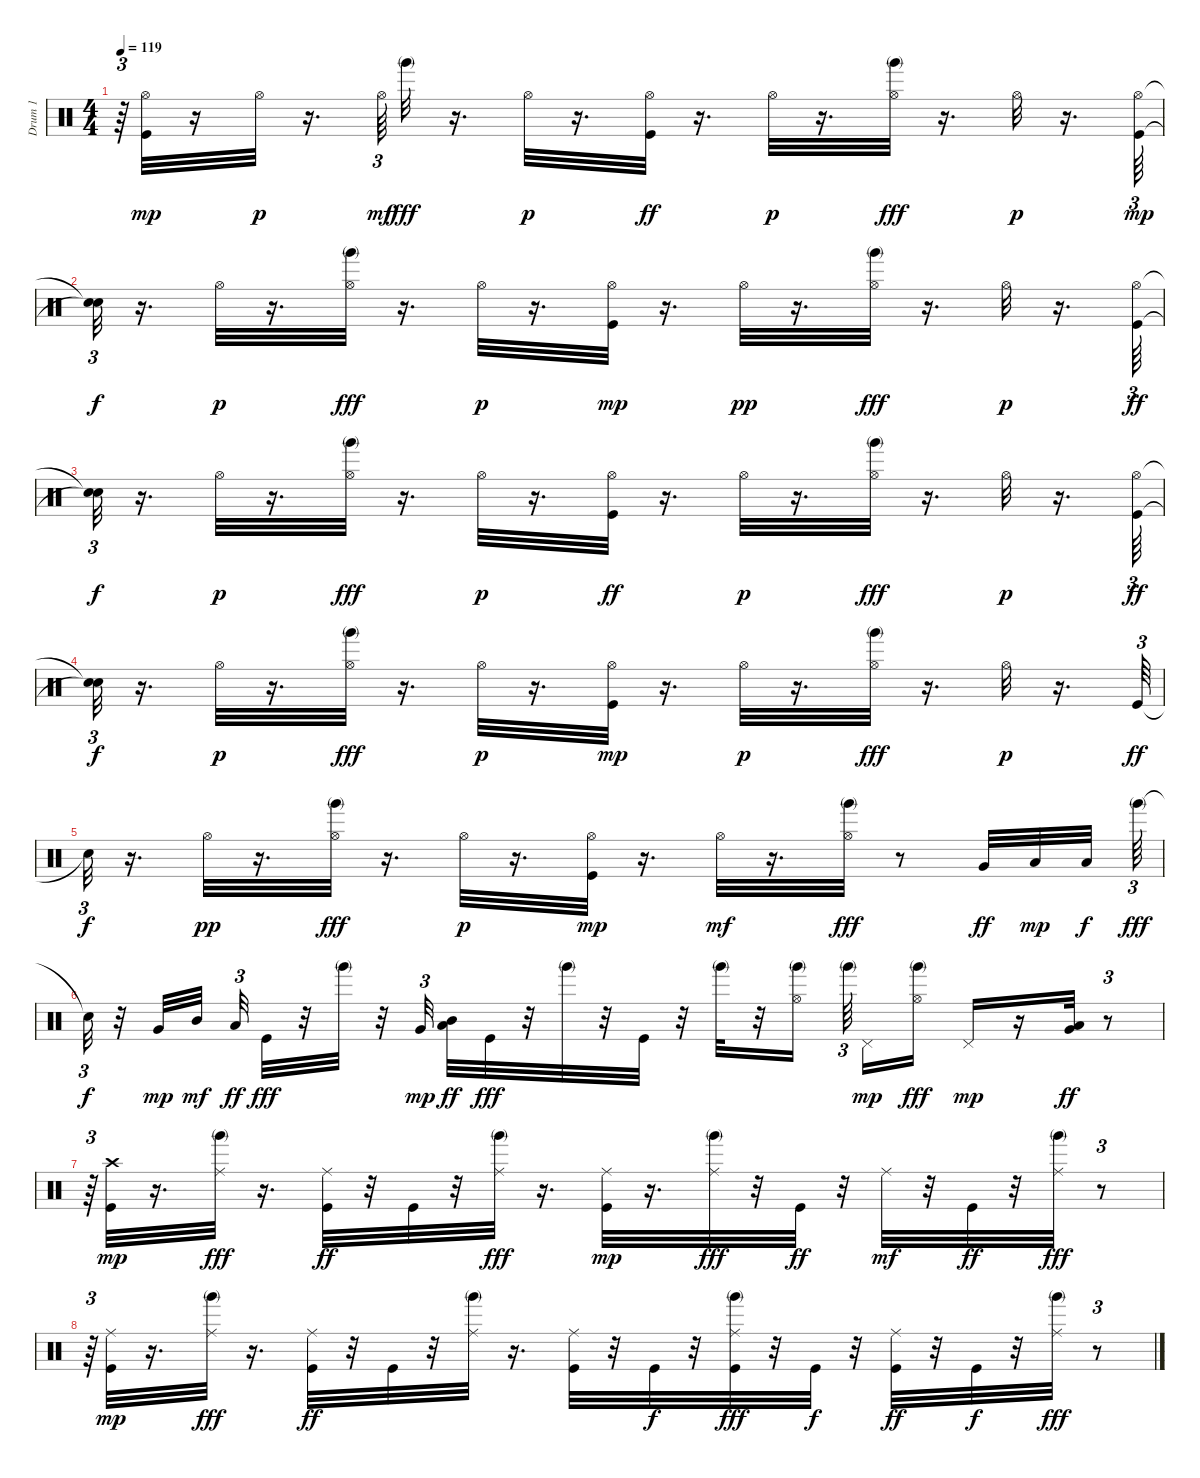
\track ("Drum 1                          " "Drum 1    ") {instrument percussion}
\staff {score}
\articulation defaults
\ts (4 4)
\tempo 119
\clef neutral
\ks c
r.64{tu (3 2) dy p} ("Kick (hit)" "Hi-Hat (open)").32{dy mp} r.16 "Hi-Hat (open)".32{dy p} r.16{d} "Hi-Hat (open)".64{tu (3 2) dy mf} "Hand (mute) 2".32{dy fff} r.16{d} "Hi-Hat (open)".32{dy p} r.16{d} ("Hi-Hat (open)" "Kick (hit)").32{dy ff} r.16{d} "Hi-Hat (open)".32{dy p} r.16{d} ("Hi-Hat (open)" "Hand (mute) 2").32{dy fff} r.16{d} "Hi-Hat (open)".32{dy p} r.16{d} ("Kick (hit)" "Hi-Hat (open)").64{tu (3 2) dy mp} |
("Snare (hit)"{t} "Snare (hit)"{t}).32{tu (3 2) dy f} r.16{d} "Hi-Hat (open)".32{dy p} r.16{d} ("Hi-Hat (open)" "Hand (mute) 2").32{dy fff} r.16{d} "Hi-Hat (open)".32{dy p} r.16{d} ("Kick (hit)" "Hi-Hat (open)").32{dy mp} r.16{d} "Hi-Hat (open)".32{dy pp} r.16{d} ("Hi-Hat (open)" "Hand (mute) 2").32{dy fff} r.16{d} "Hi-Hat (open)".32{dy p} r.16{d} ("Hi-Hat (open)" "Kick (hit)").64{tu (3 2) dy ff} |
("Snare (hit)"{t} "Snare (hit)"{t}).32{tu (3 2) dy f} r.16{d} "Hi-Hat (open)".32{dy p} r.16{d} ("Hi-Hat (open)" "Hand (mute) 2").32{dy fff} r.16{d} "Hi-Hat (open)".32{dy p} r.16{d} ("Hi-Hat (open)" "Kick (hit)").32{dy ff} r.16{d} "Hi-Hat (open)".32{dy p} r.16{d} ("Hi-Hat (open)" "Hand (mute) 2").32{dy fff} r.16{d} "Hi-Hat (open)".32{dy p} r.16{d} ("Hi-Hat (open)" "Kick (hit)").64{tu (3 2) dy ff} |
("Snare (hit)"{t} "Snare (hit)"{t}).32{tu (3 2) dy f} r.16{d} "Hi-Hat (open)".32{dy p} r.16{d} ("Hi-Hat (open)" "Hand (mute) 2").32{dy fff} r.16{d} "Hi-Hat (open)".32{dy p} r.16{d} ("Kick (hit)" "Hi-Hat (open)").32{dy mp} r.16{d} "Hi-Hat (open)".32{dy p} r.16{d} ("Hi-Hat (open)" "Hand (mute) 2").32{dy fff} r.16{d} "Hi-Hat (open)".32{dy p} r.16{d} "Kick (hit)".64{tu (3 2) dy ff} |
"Snare (hit)"{t}.32{tu (3 2) dy f} r.16{d} "Hi-Hat (open)".32{dy pp} r.16{d} ("Hi-Hat (open)" "Hand (mute) 2").32{dy fff} r.16{d} "Hi-Hat (open)".32{dy p} r.16{d} ("Kick (hit)" "Hi-Hat (open)").32{dy mp} r.16{d} "Hi-Hat (open)".32{dy mf} r.16{d} ("Hi-Hat (open)" "Hand (mute) 2").32{dy fff} r.8 "Very Low Tom (hit)".32{dy ff} "Low Tom (hit)".32{dy mp} "Low Floor Tom (hit)".32{dy f} "Hand (mute) 2".64{tu (3 2) dy fff} |
"Snare (hit)"{t}.32{tu (3 2) dy f} r.32 "Very Low Tom (hit)".32{dy mp} "Mid Tom (hit)".32{dy mf} "Low Floor Tom (hit)".32{tu (3 2) dy ff} "Kick (hit)".32{dy fff} r.32 "Hand (mute) 2".32 r.32 "Very Low Tom (hit)".32{tu (3 2) dy mp} ("Mid Tom (hit)" "Low Floor Tom (hit)").32{dy ff} "Kick (hit)".32{dy fff} r.32 "Hand (mute) 2".32 r.32 "Kick (hit)".32 r.32 "Hand (mute) 2".32 r.32 ("Hi-Hat (open)" "Hand (mute) 2").16 "Hand (mute) 2".64{tu (3 2)} "Pedal Hi-Hat (hit)".16{dy mp} ("Hi-Hat (open)" "Hand (mute) 2").16{dy fff} "Pedal Hi-Hat (hit)".16{dy mp} r.16 ("Low Floor Tom (hit)" "Very Low Tom (hit)").32{dy ff} r.8{tu (3 2)} |
r.64{tu (3 2)} ("Kick (hit)" "Crash high (hit)").32{dy mp} r.16{d} ("Ride (middle)" "Hand (mute) 2").32{dy fff} r.16{d} ("Ride (middle)" "Kick (hit)").32{dy ff} r.32 "Kick (hit)".32 r.32 ("Ride (middle)" "Hand (mute) 2").32{dy fff} r.16{d} ("Kick (hit)" "Ride (middle)").32{dy mp} r.16{d} ("Ride (middle)" "Hand (mute) 2").32{dy fff} r.32 "Kick (hit)".32{dy ff} r.32 "Ride (middle)".32{dy mf} r.32 "Kick (hit)".32{dy ff} r.32 ("Ride (middle)" "Hand (mute) 2").32{dy fff} r.8{tu (3 2)} |
r.64{tu (3 2)} ("Kick (hit)" "Ride (middle)").32{dy mp} r.16{d} ("Ride (middle)" "Hand (mute) 2").32{dy fff} r.16{d} ("Ride (middle)" "Kick (hit)").32{dy ff} r.32 "Kick (hit)".32 r.32 ("Ride (middle)" "Hand (mute) 2").32 r.16{d} ("Ride (middle)" "Kick (hit)").32 r.32 "Kick (hit)".32{dy f} r.32 ("Kick (hit)" "Ride (middle)" "Hand (mute) 2").32{dy fff} r.32 "Kick (hit)".32{dy f} r.32 ("Ride (middle)" "Kick (hit)").32{dy ff} r.32 "Kick (hit)".32{dy f} r.32 ("Ride (middle)" "Hand (mute) 2").32{dy fff} r.8{tu (3 2)}
